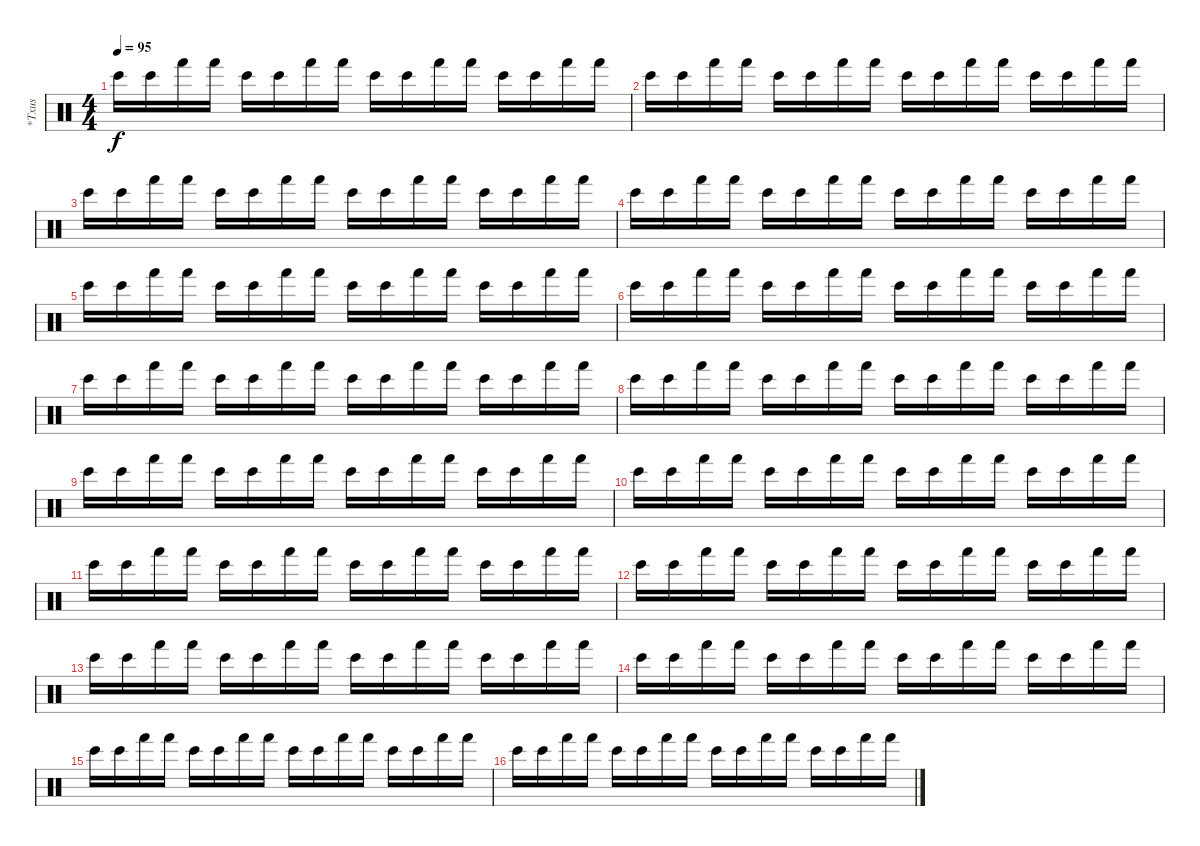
\track ("*Txus" "*Txus") {instrument percussion}
\staff {score}
\articulation defaults
\ts (4 4)
\tempo 95
\clef neutral
\ks c "Bongo High (hit)".16{dy f} "Bongo High (hit)".16 "Hand (hit)".16 "Hand (hit)".16 "Bongo High (hit)".16 "Bongo High (hit)".16 "Hand (hit)".16 "Hand (hit)".16 "Bongo High (hit)".16 "Bongo High (hit)".16 "Hand (hit)".16 "Hand (hit)".16 "Bongo High (hit)".16 "Bongo High (hit)".16 "Hand (hit)".16 "Hand (hit)".16
|
"Bongo High (hit)".16 "Bongo High (hit)".16 "Hand (hit)".16 "Hand (hit)".16 "Bongo High (hit)".16 "Bongo High (hit)".16 "Hand (hit)".16 "Hand (hit)".16 "Bongo High (hit)".16 "Bongo High (hit)".16 "Hand (hit)".16 "Hand (hit)".16 "Bongo High (hit)".16 "Bongo High (hit)".16 "Hand (hit)".16 "Hand (hit)".16 |
"Bongo High (hit)".16 "Bongo High (hit)".16 "Hand (hit)".16 "Hand (hit)".16 "Bongo High (hit)".16 "Bongo High (hit)".16 "Hand (hit)".16 "Hand (hit)".16 "Bongo High (hit)".16 "Bongo High (hit)".16 "Hand (hit)".16 "Hand (hit)".16 "Bongo High (hit)".16 "Bongo High (hit)".16 "Hand (hit)".16 "Hand (hit)".16 |
"Bongo High (hit)".16 "Bongo High (hit)".16 "Hand (hit)".16 "Hand (hit)".16 "Bongo High (hit)".16 "Bongo High (hit)".16 "Hand (hit)".16 "Hand (hit)".16 "Bongo High (hit)".16 "Bongo High (hit)".16 "Hand (hit)".16 "Hand (hit)".16 "Bongo High (hit)".16 "Bongo High (hit)".16 "Hand (hit)".16 "Hand (hit)".16 |
"Bongo High (hit)".16{volume 12} "Bongo High (hit)".16 "Hand (hit)".16 "Hand (hit)".16 "Bongo High (hit)".16 "Bongo High (hit)".16 "Hand (hit)".16 "Hand (hit)".16 "Bongo High (hit)".16 "Bongo High (hit)".16 "Hand (hit)".16 "Hand (hit)".16 "Bongo High (hit)".16 "Bongo High (hit)".16 "Hand (hit)".16 "Hand (hit)".16 |
"Bongo High (hit)".16 "Bongo High (hit)".16 "Hand (hit)".16 "Hand (hit)".16 "Bongo High (hit)".16 "Bongo High (hit)".16 "Hand (hit)".16 "Hand (hit)".16 "Bongo High (hit)".16 "Bongo High (hit)".16 "Hand (hit)".16 "Hand (hit)".16 "Bongo High (hit)".16 "Bongo High (hit)".16 "Hand (hit)".16 "Hand (hit)".16 |
"Bongo High (hit)".16 "Bongo High (hit)".16 "Hand (hit)".16 "Hand (hit)".16 "Bongo High (hit)".16 "Bongo High (hit)".16 "Hand (hit)".16 "Hand (hit)".16 "Bongo High (hit)".16 "Bongo High (hit)".16 "Hand (hit)".16 "Hand (hit)".16 "Bongo High (hit)".16 "Bongo High (hit)".16 "Hand (hit)".16 "Hand (hit)".16 |
"Bongo High (hit)".16 "Bongo High (hit)".16 "Hand (hit)".16 "Hand (hit)".16 "Bongo High (hit)".16 "Bongo High (hit)".16 "Hand (hit)".16 "Hand (hit)".16 "Bongo High (hit)".16 "Bongo High (hit)".16 "Hand (hit)".16 "Hand (hit)".16 "Bongo High (hit)".16 "Bongo High (hit)".16 "Hand (hit)".16 "Hand (hit)".16 |
"Bongo High (hit)".16 "Bongo High (hit)".16 "Hand (hit)".16 "Hand (hit)".16 "Bongo High (hit)".16 "Bongo High (hit)".16 "Hand (hit)".16 "Hand (hit)".16 "Bongo High (hit)".16 "Bongo High (hit)".16 "Hand (hit)".16 "Hand (hit)".16 "Bongo High (hit)".16 "Bongo High (hit)".16 "Hand (hit)".16 "Hand (hit)".16 |
"Bongo High (hit)".16 "Bongo High (hit)".16 "Hand (hit)".16 "Hand (hit)".16 "Bongo High (hit)".16 "Bongo High (hit)".16 "Hand (hit)".16 "Hand (hit)".16 "Bongo High (hit)".16 "Bongo High (hit)".16 "Hand (hit)".16 "Hand (hit)".16 "Bongo High (hit)".16 "Bongo High (hit)".16 "Hand (hit)".16 "Hand (hit)".16 |
"Bongo High (hit)".16 "Bongo High (hit)".16 "Hand (hit)".16 "Hand (hit)".16 "Bongo High (hit)".16 "Bongo High (hit)".16 "Hand (hit)".16 "Hand (hit)".16 "Bongo High (hit)".16 "Bongo High (hit)".16 "Hand (hit)".16 "Hand (hit)".16 "Bongo High (hit)".16 "Bongo High (hit)".16 "Hand (hit)".16 "Hand (hit)".16 |
"Bongo High (hit)".16 "Bongo High (hit)".16 "Hand (hit)".16 "Hand (hit)".16 "Bongo High (hit)".16 "Bongo High (hit)".16 "Hand (hit)".16 "Hand (hit)".16 "Bongo High (hit)".16 "Bongo High (hit)".16 "Hand (hit)".16 "Hand (hit)".16 "Bongo High (hit)".16 "Bongo High (hit)".16 "Hand (hit)".16 "Hand (hit)".16 |
"Bongo High (hit)".16 "Bongo High (hit)".16 "Hand (hit)".16 "Hand (hit)".16 "Bongo High (hit)".16 "Bongo High (hit)".16 "Hand (hit)".16 "Hand (hit)".16 "Bongo High (hit)".16 "Bongo High (hit)".16 "Hand (hit)".16 "Hand (hit)".16 "Bongo High (hit)".16 "Bongo High (hit)".16 "Hand (hit)".16 "Hand (hit)".16 |
"Bongo High (hit)".16 "Bongo High (hit)".16 "Hand (hit)".16 "Hand (hit)".16 "Bongo High (hit)".16 "Bongo High (hit)".16 "Hand (hit)".16 "Hand (hit)".16 "Bongo High (hit)".16 "Bongo High (hit)".16 "Hand (hit)".16 "Hand (hit)".16 "Bongo High (hit)".16 "Bongo High (hit)".16 "Hand (hit)".16 "Hand (hit)".16 |
"Bongo High (hit)".16 "Bongo High (hit)".16 "Hand (hit)".16 "Hand (hit)".16 "Bongo High (hit)".16 "Bongo High (hit)".16 "Hand (hit)".16 "Hand (hit)".16 "Bongo High (hit)".16 "Bongo High (hit)".16 "Hand (hit)".16 "Hand (hit)".16 "Bongo High (hit)".16 "Bongo High (hit)".16 "Hand (hit)".16 "Hand (hit)".16 |
"Bongo High (hit)".16 "Bongo High (hit)".16 "Hand (hit)".16 "Hand (hit)".16 "Bongo High (hit)".16 "Bongo High (hit)".16 "Hand (hit)".16 "Hand (hit)".16 "Bongo High (hit)".16 "Bongo High (hit)".16 "Hand (hit)".16 "Hand (hit)".16 "Bongo High (hit)".16 "Bongo High (hit)".16 "Hand (hit)".16 "Hand (hit)".16
